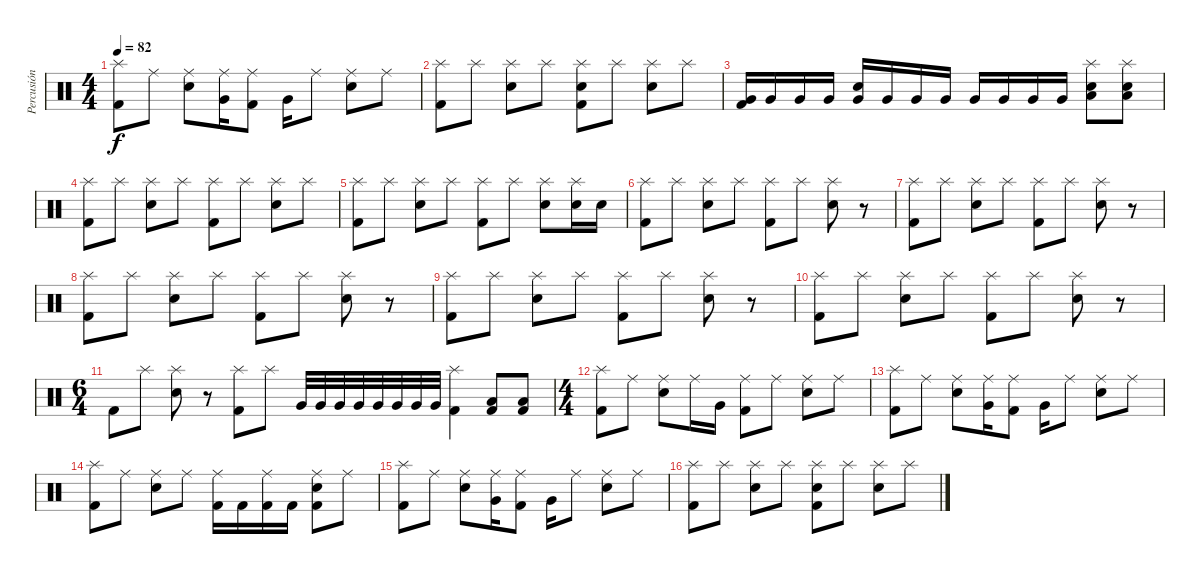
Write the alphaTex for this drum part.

\track ("Percusión" "Percusión") {instrument percussion}
\staff {score}
\articulation defaults
\ts (4 4)
\tempo 82
\clef neutral
\ks c
("Splash (hit)" "Kick (hit) 2").8{dy f} "Ride (middle)".8 ("Ride (middle)" "Snare (hit) 2").8 ("Ride (middle)" "Very Low Tom (hit)").16 ("Ride (middle)" "Kick (hit) 2").8 "Very Low Tom (hit)".16 "Ride (middle)".8 ("Ride (middle)" "Snare (hit) 2").8 "Ride (middle)".8 |
("Splash (hit)" "Kick (hit) 2").8 "Splash (hit)".8 ("Splash (hit)" "Snare (hit) 2").8 "Splash (hit)".8 ("Splash (hit)" "Snare (hit) 2" "Kick (hit) 2").8 "Splash (hit)".8 ("Splash (hit)" "Snare (hit) 2").8 "Splash (hit)".8 |
("Very Low Tom (hit)" "Kick (hit) 2").16 "Very Low Tom (hit)".16 "Very Low Tom (hit)".16 "Very Low Tom (hit)".16 ("Very Low Tom (hit)" "Snare (hit) 2").16 "Very Low Tom (hit)".16 "Very Low Tom (hit)".16 "Very Low Tom (hit)".16 "Very Low Tom (hit)".16 "Very Low Tom (hit)".16 "Very Low Tom (hit)".16 "Very Low Tom (hit)".16 ("Splash (hit)" "Low Tom (hit)" "Snare (hit) 2").8 ("Splash (hit)" "Low Tom (hit)" "Snare (hit) 2").8 |
("Splash (hit)" "Kick (hit) 2").8 "Splash (hit)".8 ("Splash (hit)" "Snare (hit) 2").8 "Splash (hit)".8 ("Splash (hit)" "Kick (hit) 2").8 "Splash (hit)".8 ("Splash (hit)" "Snare (hit) 2").8 "Splash (hit)".8 |
("Splash (hit)" "Kick (hit) 2").8 "Splash (hit)".8 ("Splash (hit)" "Snare (hit) 2").8 "Splash (hit)".8 ("Splash (hit)" "Kick (hit) 2").8 "Splash (hit)".8 ("Splash (hit)" "Snare (hit) 2").8 ("Splash (hit)" "Snare (hit) 2").16 "Snare (hit) 2".16 |
("Splash (hit)" "Kick (hit) 2").8 "Splash (hit)".8 ("Splash (hit)" "Snare (hit) 2").8 "Splash (hit)".8 ("Splash (hit)" "Kick (hit) 2").8 "Splash (hit)".8 ("Splash (hit)" "Snare (hit) 2").8 r.8 |
("Splash (hit)" "Kick (hit) 2").8 "Splash (hit)".8 ("Splash (hit)" "Snare (hit) 2").8 "Splash (hit)".8 ("Splash (hit)" "Kick (hit) 2").8 "Splash (hit)".8 ("Splash (hit)" "Snare (hit) 2").8 r.8 |
("Splash (hit)" "Kick (hit) 2").8 "Splash (hit)".8 ("Splash (hit)" "Snare (hit) 2").8 "Splash (hit)".8 ("Splash (hit)" "Kick (hit) 2").8 "Splash (hit)".8 ("Splash (hit)" "Snare (hit) 2").8 r.8 |
("Splash (hit)" "Kick (hit) 2").8 "Splash (hit)".8 ("Splash (hit)" "Snare (hit) 2").8 "Splash (hit)".8 ("Splash (hit)" "Kick (hit) 2").8 "Splash (hit)".8 ("Splash (hit)" "Snare (hit) 2").8 r.8 |
("Splash (hit)" "Kick (hit) 2").8 "Splash (hit)".8 ("Splash (hit)" "Snare (hit) 2").8 "Splash (hit)".8 ("Splash (hit)" "Kick (hit) 2").8 "Splash (hit)".8 ("Splash (hit)" "Snare (hit) 2").8 r.8 |
\ts (6 4)
"Kick (hit) 2".8 "Splash (hit)".8 ("Splash (hit)" "Snare (hit) 2").8 r.8 ("Splash (hit)" "Kick (hit) 2").8 "Splash (hit)".8 "Very Low Tom (hit)".32 "Very Low Tom (hit)".32 "Very Low Tom (hit)".32 "Very Low Tom (hit)".32 "Very Low Tom (hit)".32 "Very Low Tom (hit)".32 "Very Low Tom (hit)".32 "Very Low Tom (hit)".32 ("Splash (hit)" "Kick (hit) 2").4 ("Low Tom (hit)" "Kick (hit) 2").8 ("Low Tom (hit)" "Kick (hit) 2").8 |
\ts (4 4)
("Splash (hit)" "Kick (hit) 2").8 "Ride (middle)".8 ("Ride (middle)" "Snare (hit) 2").8 "Ride (middle)".16 "Very Low Tom (hit)".16 ("Ride (middle)" "Kick (hit) 2").8 "Ride (middle)".8 ("Ride (middle)" "Snare (hit) 2").8 "Ride (middle)".8 |
("Splash (hit)" "Kick (hit) 2").8 "Ride (middle)".8 ("Ride (middle)" "Snare (hit) 2").8 ("Ride (middle)" "Very Low Tom (hit)").16 ("Ride (middle)" "Kick (hit) 2").8 "Very Low Tom (hit)".16 "Ride (middle)".8 ("Ride (middle)" "Snare (hit) 2").8 "Ride (middle)".8 |
("Splash (hit)" "Kick (hit) 2").8 "Ride (middle)".8 ("Ride (middle)" "Snare (hit) 2").8 "Ride (middle)".8 ("Ride (middle)" "Kick (hit) 2").16 "Kick (hit) 2".16 ("Ride (middle)" "Kick (hit) 2").16 "Kick (hit) 2".16 ("Ride (middle)" "Snare (hit) 2" "Kick (hit) 2").8 "Ride (middle)".8 |
("Splash (hit)" "Kick (hit) 2").8 "Ride (middle)".8 ("Ride (middle)" "Snare (hit) 2").8 ("Ride (middle)" "Very Low Tom (hit)").16 ("Ride (middle)" "Kick (hit) 2").8 "Very Low Tom (hit)".16 "Ride (middle)".8 ("Ride (middle)" "Snare (hit) 2").8 "Ride (middle)".8 |
("Splash (hit)" "Kick (hit) 2").8 "Splash (hit)".8 ("Splash (hit)" "Snare (hit) 2").8 "Splash (hit)".8 ("Splash (hit)" "Snare (hit) 2" "Kick (hit) 2").8 "Splash (hit)".8 ("Splash (hit)" "Snare (hit) 2").8 "Splash (hit)".8
